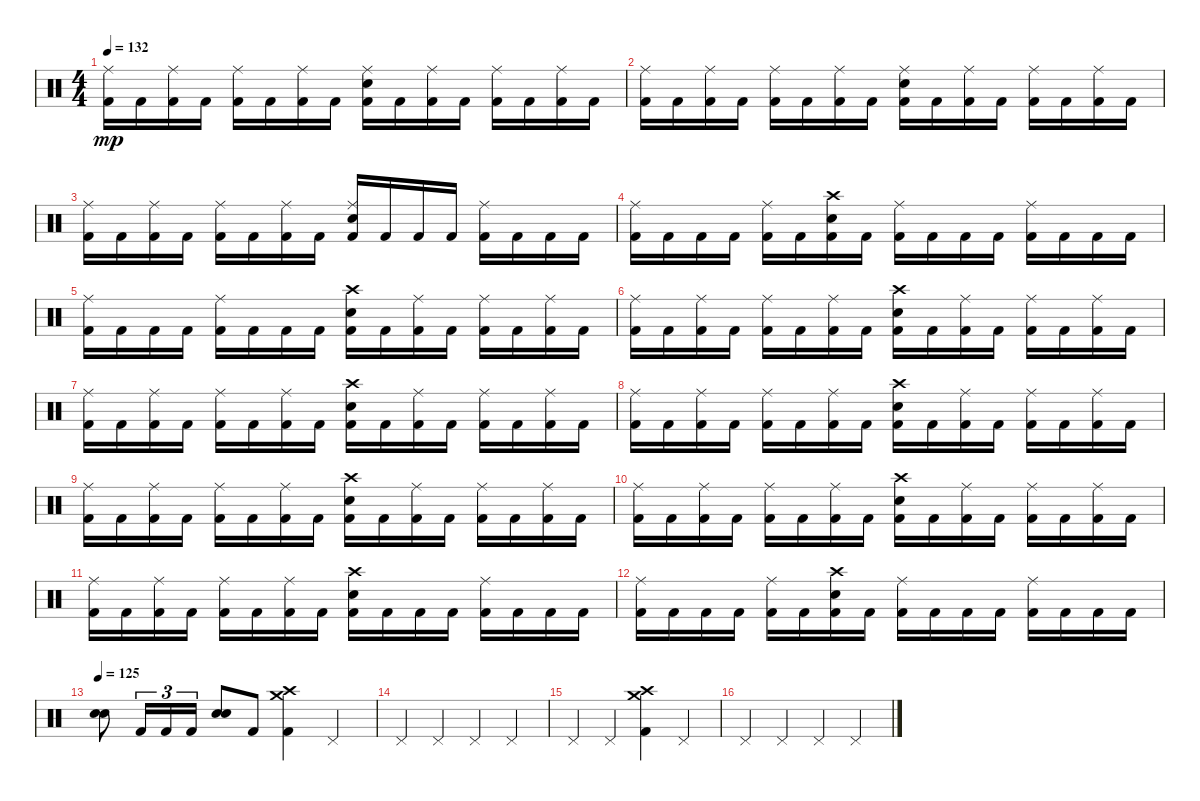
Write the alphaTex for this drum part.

\track "" {instrument percussion}
\staff {score}
\articulation defaults
\ts (4 4)
\tempo 132
\clef neutral
\ks c
("Kick (hit) 2" "Ride (middle)").16{dy mp} "Kick (hit) 2".16 ("Kick (hit) 2" "Ride (middle)").16 "Kick (hit) 2".16 ("Kick (hit) 2" "Ride (middle)").16 "Kick (hit) 2".16 ("Kick (hit) 2" "Ride (middle)").16 "Kick (hit) 2".16 ("Kick (hit) 2" "Electric Snare (hit)" "Ride (middle)").16 "Kick (hit) 2".16 ("Kick (hit) 2" "Ride (middle)").16 "Kick (hit) 2".16 ("Kick (hit) 2" "Ride (middle)").16 "Kick (hit) 2".16 ("Kick (hit) 2" "Ride (middle)").16 "Kick (hit) 2".16 |
("Kick (hit) 2" "Ride (middle)").16 "Kick (hit) 2".16 ("Kick (hit) 2" "Ride (middle)").16 "Kick (hit) 2".16 ("Kick (hit) 2" "Ride (middle)").16 "Kick (hit) 2".16 ("Kick (hit) 2" "Ride (middle)").16 "Kick (hit) 2".16 ("Kick (hit) 2" "Electric Snare (hit)" "Ride (middle)").16 "Kick (hit) 2".16 ("Kick (hit) 2" "Ride (middle)").16 "Kick (hit) 2".16 ("Kick (hit) 2" "Ride (middle)").16 "Kick (hit) 2".16 ("Kick (hit) 2" "Ride (middle)").16 "Kick (hit) 2".16 |
("Kick (hit) 2" "Ride (middle)").16 "Kick (hit) 2".16 ("Kick (hit) 2" "Ride (middle)").16 "Kick (hit) 2".16 ("Kick (hit) 2" "Ride (middle)").16 "Kick (hit) 2".16 ("Kick (hit) 2" "Ride (middle)").16 "Kick (hit) 2".16 ("Kick (hit) 2" "Electric Snare (hit)" "Ride (middle)").16 "Kick (hit) 2".16 "Kick (hit) 2".16 "Kick (hit) 2".16 ("Kick (hit) 2" "Ride (middle)").16 "Kick (hit) 2".16 "Kick (hit) 2".16 "Kick (hit) 2".16 |
("Kick (hit) 2" "Ride (middle)").16 "Kick (hit) 2".16 "Kick (hit) 2".16 "Kick (hit) 2".16 ("Kick (hit) 2" "Ride (middle)").16 "Kick (hit) 2".16 ("Kick (hit) 2" "Electric Snare (hit)" "Crash high (hit)").16 "Kick (hit) 2".16 ("Kick (hit) 2" "Ride (middle)").16 "Kick (hit) 2".16 "Kick (hit) 2".16 "Kick (hit) 2".16 ("Kick (hit) 2" "Ride (middle)").16 "Kick (hit) 2".16 "Kick (hit) 2".16 "Kick (hit) 2".16 |
("Kick (hit) 2" "Ride (middle)").16 "Kick (hit) 2".16 "Kick (hit) 2".16 "Kick (hit) 2".16 ("Kick (hit) 2" "Ride (middle)").16 "Kick (hit) 2".16 "Kick (hit) 2".16 "Kick (hit) 2".16 ("Kick (hit) 2" "Electric Snare (hit)" "Crash high (hit)").16 "Kick (hit) 2".16 ("Kick (hit) 2" "Ride (middle)").16 "Kick (hit) 2".16 ("Kick (hit) 2" "Ride (middle)").16 "Kick (hit) 2".16 ("Kick (hit) 2" "Ride (middle)").16 "Kick (hit) 2".16 |
("Kick (hit) 2" "Ride (middle)").16 "Kick (hit) 2".16 ("Kick (hit) 2" "Ride (middle)").16 "Kick (hit) 2".16 ("Kick (hit) 2" "Ride (middle)").16 "Kick (hit) 2".16 ("Kick (hit) 2" "Ride (middle)").16 "Kick (hit) 2".16 ("Kick (hit) 2" "Electric Snare (hit)" "Crash high (hit)").16 "Kick (hit) 2".16 ("Kick (hit) 2" "Ride (middle)").16 "Kick (hit) 2".16 ("Kick (hit) 2" "Ride (middle)").16 "Kick (hit) 2".16 ("Kick (hit) 2" "Ride (middle)").16 "Kick (hit) 2".16 |
("Kick (hit) 2" "Ride (middle)").16 "Kick (hit) 2".16 ("Kick (hit) 2" "Ride (middle)").16 "Kick (hit) 2".16 ("Kick (hit) 2" "Ride (middle)").16 "Kick (hit) 2".16 ("Kick (hit) 2" "Ride (middle)").16 "Kick (hit) 2".16 ("Kick (hit) 2" "Electric Snare (hit)" "Crash high (hit)").16 "Kick (hit) 2".16 ("Kick (hit) 2" "Ride (middle)").16 "Kick (hit) 2".16 ("Kick (hit) 2" "Ride (middle)").16 "Kick (hit) 2".16 ("Kick (hit) 2" "Ride (middle)").16 "Kick (hit) 2".16 |
("Kick (hit) 2" "Ride (middle)").16 "Kick (hit) 2".16 ("Kick (hit) 2" "Ride (middle)").16 "Kick (hit) 2".16 ("Kick (hit) 2" "Ride (middle)").16 "Kick (hit) 2".16 ("Kick (hit) 2" "Ride (middle)").16 "Kick (hit) 2".16 ("Kick (hit) 2" "Electric Snare (hit)" "Crash high (hit)").16 "Kick (hit) 2".16 ("Kick (hit) 2" "Ride (middle)").16 "Kick (hit) 2".16 ("Kick (hit) 2" "Ride (middle)").16 "Kick (hit) 2".16 ("Kick (hit) 2" "Ride (middle)").16 "Kick (hit) 2".16 |
("Kick (hit) 2" "Ride (middle)").16 "Kick (hit) 2".16 ("Kick (hit) 2" "Ride (middle)").16 "Kick (hit) 2".16 ("Kick (hit) 2" "Ride (middle)").16 "Kick (hit) 2".16 ("Kick (hit) 2" "Ride (middle)").16 "Kick (hit) 2".16 ("Kick (hit) 2" "Electric Snare (hit)" "Crash high (hit)").16 "Kick (hit) 2".16 ("Kick (hit) 2" "Ride (middle)").16 "Kick (hit) 2".16 ("Kick (hit) 2" "Ride (middle)").16 "Kick (hit) 2".16 ("Kick (hit) 2" "Ride (middle)").16 "Kick (hit) 2".16 |
("Kick (hit) 2" "Ride (middle)").16 "Kick (hit) 2".16 ("Kick (hit) 2" "Ride (middle)").16 "Kick (hit) 2".16 ("Kick (hit) 2" "Ride (middle)").16 "Kick (hit) 2".16 ("Kick (hit) 2" "Ride (middle)").16 "Kick (hit) 2".16 ("Kick (hit) 2" "Electric Snare (hit)" "Crash high (hit)").16 "Kick (hit) 2".16 ("Kick (hit) 2" "Ride (middle)").16 "Kick (hit) 2".16 ("Kick (hit) 2" "Ride (middle)").16 "Kick (hit) 2".16 ("Kick (hit) 2" "Ride (middle)").16 "Kick (hit) 2".16 |
("Kick (hit) 2" "Ride (middle)").16 "Kick (hit) 2".16 ("Kick (hit) 2" "Ride (middle)").16 "Kick (hit) 2".16 ("Kick (hit) 2" "Ride (middle)").16 "Kick (hit) 2".16 ("Kick (hit) 2" "Ride (middle)").16 "Kick (hit) 2".16 ("Kick (hit) 2" "Electric Snare (hit)" "Crash high (hit)").16 "Kick (hit) 2".16 "Kick (hit) 2".16 "Kick (hit) 2".16 ("Kick (hit) 2" "Ride (middle)").16 "Kick (hit) 2".16 "Kick (hit) 2".16 "Kick (hit) 2".16 |
("Kick (hit) 2" "Ride (middle)").16 "Kick (hit) 2".16 "Kick (hit) 2".16 "Kick (hit) 2".16 ("Kick (hit) 2" "Ride (middle)").16 "Kick (hit) 2".16 ("Kick (hit) 2" "Electric Snare (hit)" "Crash high (hit)").16 "Kick (hit) 2".16 ("Kick (hit) 2" "Ride (middle)").16 "Kick (hit) 2".16 "Kick (hit) 2".16 "Kick (hit) 2".16 ("Kick (hit) 2" "Ride (middle)").16 "Kick (hit) 2".16 "Kick (hit) 2".16 "Kick (hit) 2".16 |
\tempo 125
("Electric Snare (hit)" "Electric Snare (hit)").8 "Kick (hit) 2".16{tu (3 2)} "Kick (hit) 2".16{tu (3 2)} "Kick (hit) 2".16{tu (3 2)} ("Electric Snare (hit)" "Electric Snare (hit)").8 "Kick (hit) 2".8 ("Kick (hit) 2" "Crash medium (hit)" "Crash high (hit)").4 "Pedal Hi-Hat (hit)".4 |
"Pedal Hi-Hat (hit)".4 "Pedal Hi-Hat (hit)".4 "Pedal Hi-Hat (hit)".4 "Pedal Hi-Hat (hit)".4 |
"Pedal Hi-Hat (hit)".4 "Pedal Hi-Hat (hit)".4 ("Kick (hit) 2" "Crash medium (hit)" "Crash high (hit)").4 "Pedal Hi-Hat (hit)".4 |
"Pedal Hi-Hat (hit)".4 "Pedal Hi-Hat (hit)".4 "Pedal Hi-Hat (hit)".4 "Pedal Hi-Hat (hit)".4
